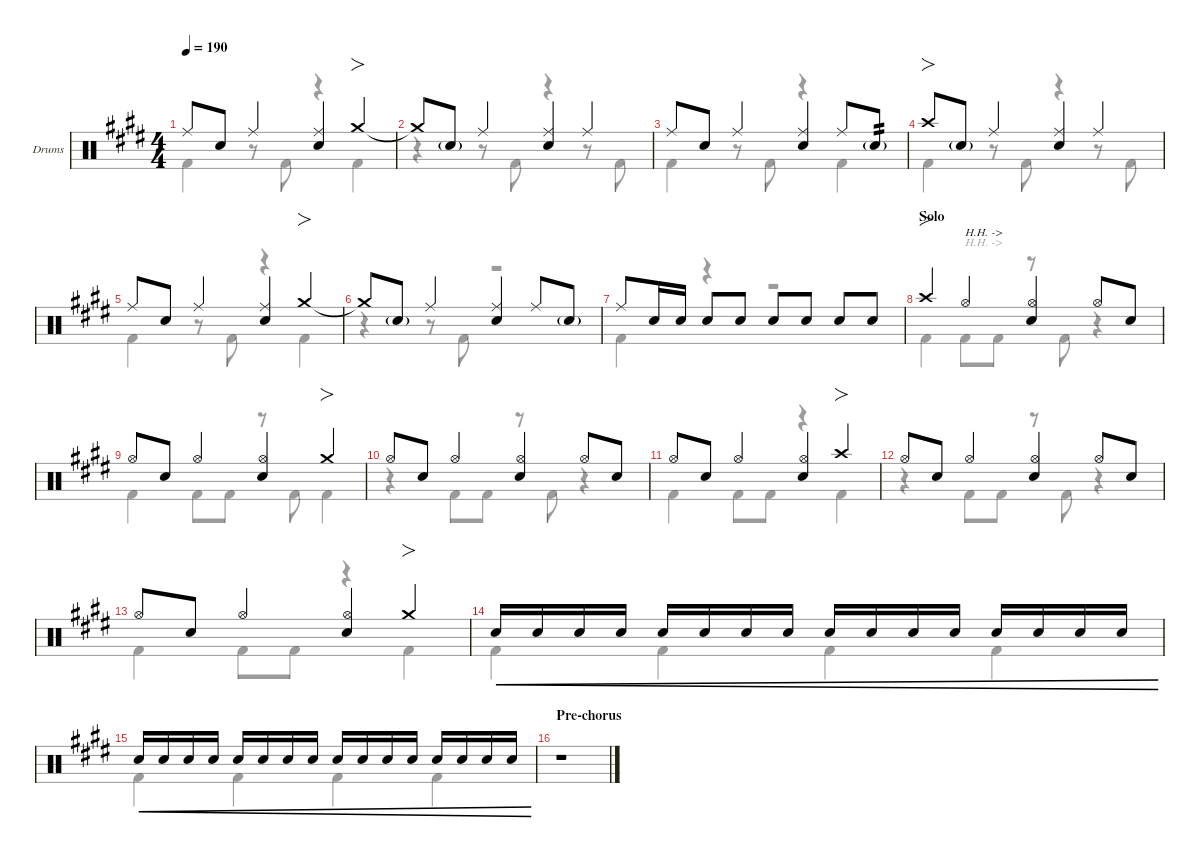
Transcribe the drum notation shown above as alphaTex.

\defaultSystemsLayout 4
\hideDynamics
\bracketExtendMode nobrackets
\firstSystemTrackNameOrientation horizontal
\track ("Drums" "Drums") {defaultSystemsLayout 4 instrument percussion}
\staff {score}
\articulation defaults
\voice
\ts (4 4)
\tempo 190
\clef neutral
\scale
0.245237
\ks e "Ride (middle)"{acc forcenatural}.8{dy f beam Up} "Snare (hit) 2"{acc forcenatural}.8{beam Up} "Ride (middle)"{acc forcenatural}.4{beam Up}
("Snare (hit) 2"{acc forcenatural} "Ride (middle)"{acc forcenatural}).4{beam Up} "Crash medium (hit)"{acc forcenatural}.4{fo beam Up} |
\scale
0.244132 "Crash medium (hit)"{t acc forcenatural}.8{beam Up} "Snare (hit) 2"{g acc forcenatural}.8{dy mf beam Up} "Ride (middle)"{acc forcenatural}.4{dy f beam Up} ("Snare (hit) 2"{acc forcenatural} "Ride (middle)"{acc forcenatural}).4{beam Up} "Ride (middle)"{acc forcenatural}.4{beam Up} |
\scale
0.244132 "Ride (middle)"{acc forcenatural}.8{beam Up} "Snare (hit) 2"{acc forcenatural}.8{beam Up} "Ride (middle)"{acc forcenatural}.4{beam Up} ("Snare (hit) 2"{acc forcenatural} "Ride (middle)"{acc forcenatural}).4{beam Up} "Ride (middle)"{acc forcenatural}.8{beam Up} "Snare (hit) 2"{g acc forcenatural}.8{tp 2 dy mf beam Up} |
\scale
0.267605 "Crash high (hit)"{acc forcenatural}.8{fo dy f beam Up} "Snare (hit) 2"{g acc forcenatural}.8{dy mf beam Up} "Ride (middle)"{acc forcenatural}.4{dy f beam Up} ("Ride (middle)"{acc forcenatural} "Snare (hit) 2"{acc forcenatural}).4{beam Up} "Ride (middle)"{acc forcenatural}.4{beam Up} |
\scale
0.244132 "Ride (middle)"{acc forcenatural}.8{beam Up} "Snare (hit) 2"{acc forcenatural}.8{beam Up} "Ride (middle)"{acc forcenatural}.4{beam Up} ("Snare (hit) 2"{acc forcenatural} "Ride (middle)"{acc forcenatural}).4{beam Up} "Crash medium (hit)"{acc forcenatural}.4{fo beam Up} |
\scale
0.244132 "Crash medium (hit)"{t acc forcenatural}.8{beam Up} "Snare (hit) 2"{g acc forcenatural}.8{dy mf beam Up} "Ride (middle)"{acc forcenatural}.4{dy f beam Up} ("Snare (hit) 2"{acc forcenatural} "Ride (middle)"{acc forcenatural}).4{beam Up} "Ride (middle)"{acc forcenatural}.8{beam Up} "Snare (hit) 2"{g acc forcenatural}.8{dy mf beam Up} |
\scale
0.244132 "Ride (middle)"{acc forcenatural}.8{dy f beam Up} "Snare (hit) 2"{acc forcenatural}.16{beam Up} "Snare (hit) 2"{acc forcenatural}.16{dy mf beam Up beam split} "Snare (hit) 2"{acc forcenatural}.8{dy f beam Up} "Snare (hit) 2"{acc forcenatural}.8{dy mf beam Up} "Snare (hit) 2"{acc forcenatural}.8{dy f beam Up} "Snare (hit) 2"{acc forcenatural}.8{dy mf beam Up} "Snare (hit) 2"{acc forcenatural}.8{dy f beam Up} "Snare (hit) 2"{acc forcenatural}.8{dy mf beam Up} |
\section ("" "Solo")
\scale
0.267605 "Crash high (hit)"{acc forcenatural}.4{fo dy f beam Up} "Hi-Hat (open)"{acc forcenatural}.4{txt "H.H. ->" beam Up} ("Hi-Hat (open)"{acc forcenatural} "Snare (hit) 2"{acc forcenatural}).4{beam Up} "Hi-Hat (open)"{acc forcenatural}.8{beam Up} "Snare (hit) 2"{acc forcenatural}.8{beam Up} |
\scale
0.244132 "Hi-Hat (open)"{acc forcenatural}.8{beam Up} "Snare (hit) 2"{acc forcenatural}.8{beam Up} "Hi-Hat (open)"{acc forcenatural}.4{beam Up} ("Hi-Hat (open)"{acc forcenatural} "Snare (hit) 2"{acc forcenatural}).4{beam Up} "Crash medium (hit)"{acc forcenatural}.4{fo beam Up} |
\scale
0.244132 "Hi-Hat (open)"{acc forcenatural}.8{beam Up} "Snare (hit) 2"{acc forcenatural}.8{beam Up} "Hi-Hat (open)"{acc forcenatural}.4{beam Up} ("Hi-Hat (open)"{acc forcenatural} "Snare (hit) 2"{acc forcenatural}).4{beam Up} "Hi-Hat (open)"{acc forcenatural}.8{beam Up} "Snare (hit) 2"{acc forcenatural}.8{beam Up} |
\scale
0.244132 "Hi-Hat (open)"{acc forcenatural}.8{beam Up} "Snare (hit) 2"{acc forcenatural}.8{beam Up} "Hi-Hat (open)"{acc forcenatural}.4{beam Up} ("Hi-Hat (open)"{acc forcenatural} "Snare (hit) 2"{acc forcenatural}).4{beam Up} "Crash high (hit)"{acc forcenatural}.4{fo beam Up} |
\scale
0.267605 "Hi-Hat (open)"{acc forcenatural}.8{beam Up} "Snare (hit) 2"{acc forcenatural}.8{beam Up} "Hi-Hat (open)"{acc forcenatural}.4{beam Up} ("Hi-Hat (open)"{acc forcenatural} "Snare (hit) 2"{acc forcenatural}).4{beam Up} "Hi-Hat (open)"{acc forcenatural}.8{beam Up} "Snare (hit) 2"{acc forcenatural}.8{beam Up} |
\scale
0.244132 "Hi-Hat (open)"{acc forcenatural}.8{beam Up} "Snare (hit) 2"{acc forcenatural}.8{beam Up} "Hi-Hat (open)"{acc forcenatural}.4{beam Up} ("Hi-Hat (open)"{acc forcenatural} "Snare (hit) 2"{acc forcenatural}).4{beam Up} "Crash medium (hit)"{acc forcenatural}.4{fo beam Up} |
\scale
0.244132 "Snare (hit) 2"{acc forcenatural}.16{cre beam Up} "Snare (hit) 2"{acc forcenatural}.16{cre dy mp beam Up} "Snare (hit) 2"{acc forcenatural}.16{cre dy mf beam Up} "Snare (hit) 2"{acc forcenatural}.16{cre dy mp beam Up beam split} "Snare (hit) 2"{acc forcenatural}.16{cre dy f beam Up} "Snare (hit) 2"{acc forcenatural}.16{cre dy mp beam Up} "Snare (hit) 2"{acc forcenatural}.16{cre dy mf beam Up} "Snare (hit) 2"{acc forcenatural}.16{cre dy mp beam Up beam split} "Snare (hit) 2"{acc forcenatural}.16{cre dy f beam Up} "Snare (hit) 2"{acc forcenatural}.16{cre dy mp beam Up} "Snare (hit) 2"{acc forcenatural}.16{cre dy mf beam Up} "Snare (hit) 2"{acc forcenatural}.16{cre dy mp beam Up beam split} "Snare (hit) 2"{acc forcenatural}.16{cre dy f beam Up} "Snare (hit) 2"{acc forcenatural}.16{cre dy mp beam Up} "Snare (hit) 2"{acc forcenatural}.16{cre dy mf beam Up} "Snare (hit) 2"{acc forcenatural}.16{cre dy mp beam Up beam split} |
\scale
0.244132 "Snare (hit) 2"{acc forcenatural}.16{cre dy f beam Up} "Snare (hit) 2"{acc forcenatural}.16{cre dy mp beam Up} "Snare (hit) 2"{acc forcenatural}.16{cre dy mf beam Up} "Snare (hit) 2"{acc forcenatural}.16{cre dy mp beam Up beam split} "Snare (hit) 2"{acc forcenatural}.16{cre dy f beam Up} "Snare (hit) 2"{acc forcenatural}.16{cre dy mp beam Up} "Snare (hit) 2"{acc forcenatural}.16{cre dy mf beam Up} "Snare (hit) 2"{acc forcenatural}.16{cre dy mp beam Up beam split} "Snare (hit) 2"{acc forcenatural}.16{cre dy f beam Up} "Snare (hit) 2"{acc forcenatural}.16{cre dy mp beam Up} "Snare (hit) 2"{acc forcenatural}.16{cre dy mf beam Up} "Snare (hit) 2"{acc forcenatural}.16{cre dy mp beam Up beam split} "Snare (hit) 2"{acc forcenatural}.16{cre dy f beam Up} "Snare (hit) 2"{acc forcenatural}.16{cre dy mp beam Up} "Snare (hit) 2"{acc forcenatural}.16{cre dy mf beam Up} "Snare (hit) 2"{acc forcenatural}.16{cre dy mp beam Up beam split} |
\section ("" "Pre-chorus")
\scale
0.267605 r.1{beam Up}
\voice
\clef neutral
\ottava regular
\simile none
\scale
0.245237
\ks e "Kick (hit) 2"{acc forcenatural}.4{dy f beam Down}
r.8{beam Down} "Kick (hit) 2"{acc forcenatural}.8{beam Down} r.4{beam Down} "Kick (hit) 2"{acc forcenatural}.4{beam Down} |
\scale
0.244132 r.4{beam Down} r.8{beam Down} "Kick (hit) 2"{acc forcenatural}.8{beam Down} r.4{beam Down} r.8{beam Down} "Kick (hit) 2"{acc forcenatural}.8{beam Down} |
\scale
0.244132 "Kick (hit) 2"{acc forcenatural}.4{beam Down} r.8{beam Down} "Kick (hit) 2"{acc forcenatural}.8{beam Down} r.4{beam Down} "Kick (hit) 2"{acc forcenatural}.4{beam Down} |
\scale
0.267605 "Kick (hit) 2"{acc forcenatural}.4{beam Down} r.8{beam Down} "Kick (hit) 2"{acc forcenatural}.8{beam Down} r.4{beam Down} r.8{beam Down} "Kick (hit) 2"{acc forcenatural}.8{beam Down} |
\scale
0.244132 "Kick (hit) 2"{acc forcenatural}.4{beam Down} r.8{beam Down} "Kick (hit) 2"{acc forcenatural}.8{beam Down} r.4{beam Down} "Kick (hit) 2"{acc forcenatural}.4{beam Down} |
\scale
0.244132 r.4{beam Down} r.8{beam Down} "Kick (hit) 2"{acc forcenatural}.8{beam Down} r.2{beam Down} |
\scale
0.244132 "Kick (hit) 2"{acc forcenatural}.4{beam Down} r.4{beam Down} r.2{beam Down} |
\scale
0.267605 "Kick (hit) 2"{acc forcenatural}.4{beam Down} "Kick (hit) 2"{acc forcenatural}.8{txt "H.H. ->" beam Down} "Kick (hit) 2"{acc forcenatural}.8{beam Down} r.8{beam Down} "Kick (hit) 2"{acc forcenatural}.8{beam Down} r.4{beam Down} |
\scale
0.244132 "Kick (hit) 2"{acc forcenatural}.4{beam Down} "Kick (hit) 2"{acc forcenatural}.8{beam Down} "Kick (hit) 2"{acc forcenatural}.8{beam Down} r.8{beam Down} "Kick (hit) 2"{acc forcenatural}.8{beam Down} "Kick (hit) 2"{acc forcenatural}.4{beam Down} |
\scale
0.244132 r.4{beam Down} "Kick (hit) 2"{acc forcenatural}.8{beam Down} "Kick (hit) 2"{acc forcenatural}.8{beam Down} r.8{beam Down} "Kick (hit) 2"{acc forcenatural}.8{beam Down} r.4{beam Down} |
\scale
0.244132 "Kick (hit) 2"{acc forcenatural}.4{beam Down} "Kick (hit) 2"{acc forcenatural}.8{beam Down} "Kick (hit) 2"{acc forcenatural}.8{beam Down} r.4{beam Down} "Kick (hit) 2"{acc forcenatural}.4{beam Down} |
\scale
0.267605 r.4{beam Down} "Kick (hit) 2"{acc forcenatural}.8{beam Down} "Kick (hit) 2"{acc forcenatural}.8{beam Down} r.8{beam Down} "Kick (hit) 2"{acc forcenatural}.8{beam Down} r.4{beam Down} |
\scale
0.244132 "Kick (hit) 2"{acc forcenatural}.4{beam Down} "Kick (hit) 2"{acc forcenatural}.8{beam Down} "Kick (hit) 2"{acc forcenatural}.8{beam Down} r.4{beam Down} "Kick (hit) 2"{acc forcenatural}.4{beam Down} |
\scale
0.244132 "Kick (hit) 2"{acc forcenatural}.4{beam Down} "Kick (hit) 2"{acc forcenatural}.4{beam Down} "Kick (hit) 2"{acc forcenatural}.4{beam Down} "Kick (hit) 2"{acc forcenatural}.4{beam Down} |
\scale
0.244132 "Kick (hit) 2"{acc forcenatural}.4{beam Down} "Kick (hit) 2"{acc forcenatural}.4{beam Down} "Kick (hit) 2"{acc forcenatural}.4{beam Down} "Kick (hit) 2"{acc forcenatural}.4{beam Down} |
\scale
0.267605 r.1{beam Down}
